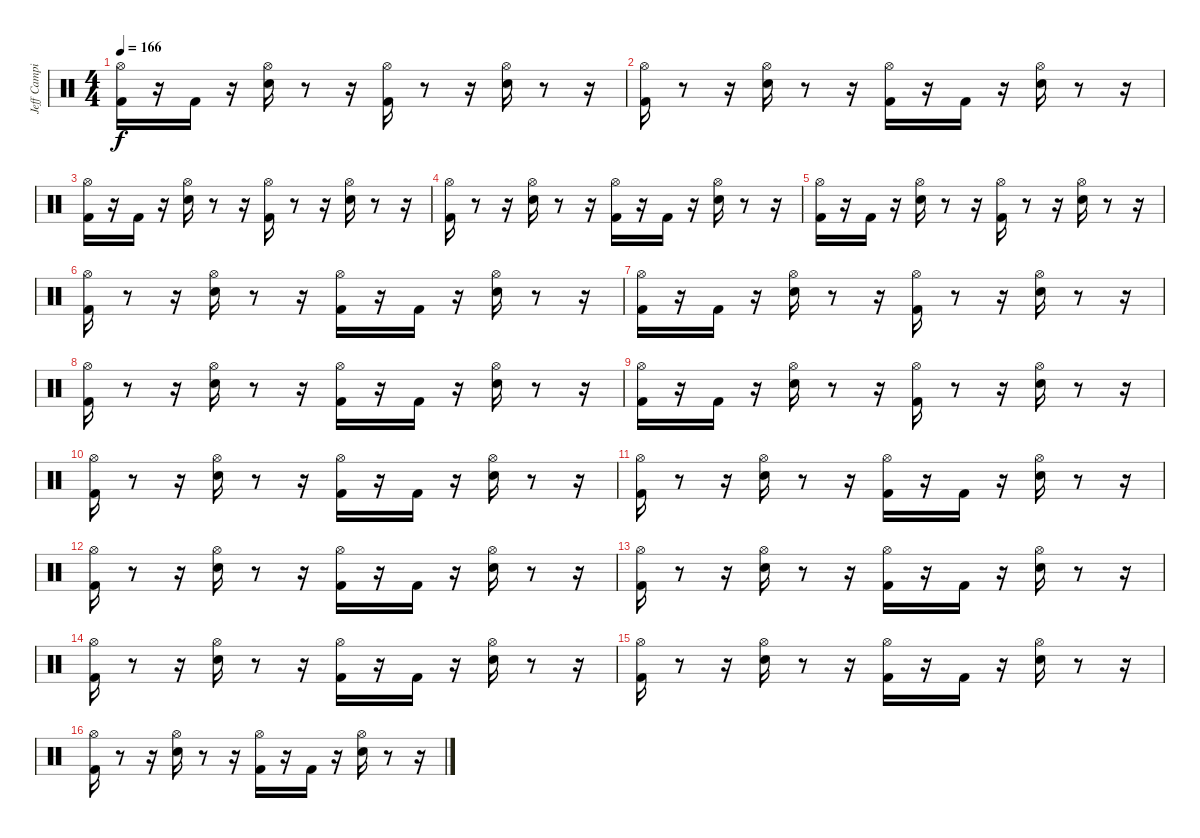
\track ("Jeff Campitelli" "Jeff Campi") {instrument percussion}
\staff {score}
\articulation defaults
\ts (4 4)
\tempo 166
\clef neutral
\ks c
("Hi-Hat (open)" "Kick (hit) 2").16{dy f} r.16 "Kick (hit) 2".16 r.16 ("Snare (hit) 2" "Hi-Hat (open)").16 r.8 r.16 ("Hi-Hat (open)" "Kick (hit) 2").16 r.8 r.16 ("Hi-Hat (open)" "Snare (hit) 2").16 r.8 r.16 |
("Hi-Hat (open)" "Kick (hit) 2").16 r.8 r.16 ("Snare (hit) 2" "Hi-Hat (open)").16 r.8 r.16 ("Kick (hit) 2" "Hi-Hat (open)").16 r.16 "Kick (hit) 2".16 r.16 ("Hi-Hat (open)" "Snare (hit) 2").16 r.8 r.16 |
("Hi-Hat (open)" "Kick (hit) 2").16 r.16 "Kick (hit) 2".16 r.16 ("Snare (hit) 2" "Hi-Hat (open)").16 r.8 r.16 ("Hi-Hat (open)" "Kick (hit) 2").16 r.8 r.16 ("Hi-Hat (open)" "Snare (hit) 2").16 r.8 r.16 |
("Hi-Hat (open)" "Kick (hit) 2").16 r.8 r.16 ("Snare (hit) 2" "Hi-Hat (open)").16 r.8 r.16 ("Kick (hit) 2" "Hi-Hat (open)").16 r.16 "Kick (hit) 2".16 r.16 ("Hi-Hat (open)" "Snare (hit) 2").16 r.8 r.16 |
("Hi-Hat (open)" "Kick (hit) 2").16 r.16 "Kick (hit) 2".16 r.16 ("Snare (hit) 2" "Hi-Hat (open)").16 r.8 r.16 ("Hi-Hat (open)" "Kick (hit) 2").16 r.8 r.16 ("Hi-Hat (open)" "Snare (hit) 2").16 r.8 r.16 |
("Hi-Hat (open)" "Kick (hit) 2").16 r.8 r.16 ("Snare (hit) 2" "Hi-Hat (open)").16 r.8 r.16 ("Kick (hit) 2" "Hi-Hat (open)").16 r.16 "Kick (hit) 2".16 r.16 ("Hi-Hat (open)" "Snare (hit) 2").16 r.8 r.16 |
("Hi-Hat (open)" "Kick (hit) 2").16 r.16 "Kick (hit) 2".16 r.16 ("Snare (hit) 2" "Hi-Hat (open)").16 r.8 r.16 ("Hi-Hat (open)" "Kick (hit) 2").16 r.8 r.16 ("Hi-Hat (open)" "Snare (hit) 2").16 r.8 r.16 |
("Hi-Hat (open)" "Kick (hit) 2").16 r.8 r.16 ("Snare (hit) 2" "Hi-Hat (open)").16 r.8 r.16 ("Kick (hit) 2" "Hi-Hat (open)").16 r.16 "Kick (hit) 2".16 r.16 ("Hi-Hat (open)" "Snare (hit) 2").16 r.8 r.16 |
("Hi-Hat (open)" "Kick (hit) 2").16 r.16 "Kick (hit) 2".16 r.16 ("Snare (hit) 2" "Hi-Hat (open)").16 r.8 r.16 ("Hi-Hat (open)" "Kick (hit) 2").16 r.8 r.16 ("Hi-Hat (open)" "Snare (hit) 2").16 r.8 r.16 |
("Hi-Hat (open)" "Kick (hit) 2").16 r.8 r.16 ("Snare (hit) 2" "Hi-Hat (open)").16 r.8 r.16 ("Kick (hit) 2" "Hi-Hat (open)").16 r.16 "Kick (hit) 2".16 r.16 ("Hi-Hat (open)" "Snare (hit) 2").16 r.8 r.16 |
("Hi-Hat (open)" "Kick (hit) 2").16 r.8 r.16 ("Snare (hit) 2" "Hi-Hat (open)").16 r.8 r.16 ("Kick (hit) 2" "Hi-Hat (open)").16 r.16 "Kick (hit) 2".16 r.16 ("Hi-Hat (open)" "Snare (hit) 2").16 r.8 r.16 |
("Hi-Hat (open)" "Kick (hit) 2").16 r.8 r.16 ("Snare (hit) 2" "Hi-Hat (open)").16 r.8 r.16 ("Kick (hit) 2" "Hi-Hat (open)").16 r.16 "Kick (hit) 2".16 r.16 ("Hi-Hat (open)" "Snare (hit) 2").16 r.8 r.16 |
("Hi-Hat (open)" "Kick (hit) 2").16 r.8 r.16 ("Snare (hit) 2" "Hi-Hat (open)").16 r.8 r.16 ("Kick (hit) 2" "Hi-Hat (open)").16 r.16 "Kick (hit) 2".16 r.16 ("Hi-Hat (open)" "Snare (hit) 2").16 r.8 r.16 |
("Hi-Hat (open)" "Kick (hit) 2").16 r.8 r.16 ("Snare (hit) 2" "Hi-Hat (open)").16 r.8 r.16 ("Kick (hit) 2" "Hi-Hat (open)").16 r.16 "Kick (hit) 2".16 r.16 ("Hi-Hat (open)" "Snare (hit) 2").16 r.8 r.16 |
("Hi-Hat (open)" "Kick (hit) 2").16 r.8 r.16 ("Snare (hit) 2" "Hi-Hat (open)").16 r.8 r.16 ("Kick (hit) 2" "Hi-Hat (open)").16 r.16 "Kick (hit) 2".16 r.16 ("Hi-Hat (open)" "Snare (hit) 2").16 r.8 r.16 |
("Hi-Hat (open)" "Kick (hit) 2").16 r.8 r.16 ("Snare (hit) 2" "Hi-Hat (open)").16 r.8 r.16 ("Kick (hit) 2" "Hi-Hat (open)").16 r.16 "Kick (hit) 2".16 r.16 ("Hi-Hat (open)" "Snare (hit) 2").16 r.8 r.16
